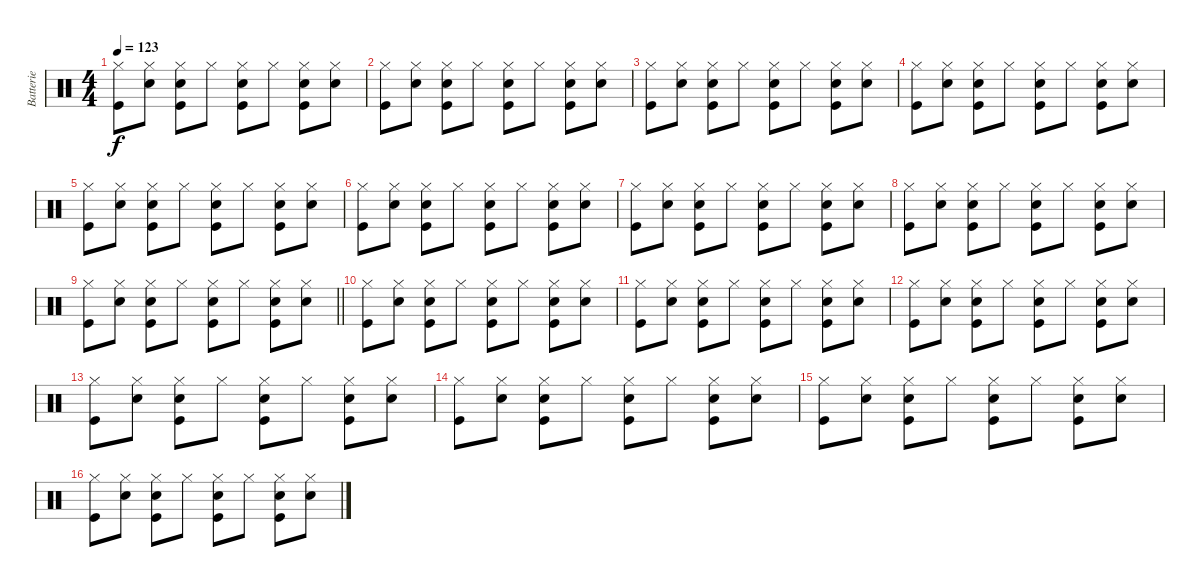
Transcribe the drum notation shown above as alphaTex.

\track ("Batterie" "Batterie") {instrument percussion}
\staff {score}
\articulation defaults
\ts (4 4)
\tempo 123
\clef neutral
\ks c
("Hi-Hat (closed)" "Kick (hit)").8{dy f} ("Snare (hit) 2" "Hi-Hat (closed)").8 ("Hi-Hat (closed)" "Snare (hit) 2" "Kick (hit)").8 "Hi-Hat (closed)".8 ("Snare (hit) 2" "Kick (hit)" "Hi-Hat (closed)").8 "Hi-Hat (closed)".8 ("Hi-Hat (closed)" "Kick (hit)" "Snare (hit) 2").8 ("Hi-Hat (closed)" "Snare (hit) 2").8 |
("Hi-Hat (closed)" "Kick (hit)").8 ("Snare (hit) 2" "Hi-Hat (closed)").8 ("Hi-Hat (closed)" "Snare (hit) 2" "Kick (hit)").8 "Hi-Hat (closed)".8 ("Snare (hit) 2" "Kick (hit)" "Hi-Hat (closed)").8 "Hi-Hat (closed)".8 ("Hi-Hat (closed)" "Kick (hit)" "Snare (hit) 2").8 ("Hi-Hat (closed)" "Snare (hit) 2").8 |
("Hi-Hat (closed)" "Kick (hit)").8 ("Snare (hit) 2" "Hi-Hat (closed)").8 ("Hi-Hat (closed)" "Snare (hit) 2" "Kick (hit)").8 "Hi-Hat (closed)".8 ("Snare (hit) 2" "Kick (hit)" "Hi-Hat (closed)").8 "Hi-Hat (closed)".8 ("Hi-Hat (closed)" "Kick (hit)" "Snare (hit) 2").8 ("Hi-Hat (closed)" "Snare (hit) 2").8 |
("Hi-Hat (closed)" "Kick (hit)").8 ("Snare (hit) 2" "Hi-Hat (closed)").8 ("Hi-Hat (closed)" "Snare (hit) 2" "Kick (hit)").8 "Hi-Hat (closed)".8 ("Snare (hit) 2" "Kick (hit)" "Hi-Hat (closed)").8 "Hi-Hat (closed)".8 ("Hi-Hat (closed)" "Kick (hit)" "Snare (hit) 2").8 ("Hi-Hat (closed)" "Snare (hit) 2").8 |
("Hi-Hat (closed)" "Kick (hit)").8 ("Snare (hit) 2" "Hi-Hat (closed)").8 ("Hi-Hat (closed)" "Snare (hit) 2" "Kick (hit)").8 "Hi-Hat (closed)".8 ("Snare (hit) 2" "Kick (hit)" "Hi-Hat (closed)").8 "Hi-Hat (closed)".8 ("Hi-Hat (closed)" "Kick (hit)" "Snare (hit) 2").8 ("Hi-Hat (closed)" "Snare (hit) 2").8 |
("Hi-Hat (closed)" "Kick (hit)").8 ("Snare (hit) 2" "Hi-Hat (closed)").8 ("Hi-Hat (closed)" "Snare (hit) 2" "Kick (hit)").8 "Hi-Hat (closed)".8 ("Snare (hit) 2" "Kick (hit)" "Hi-Hat (closed)").8 "Hi-Hat (closed)".8 ("Hi-Hat (closed)" "Kick (hit)" "Snare (hit) 2").8 ("Hi-Hat (closed)" "Snare (hit) 2").8 |
("Hi-Hat (closed)" "Kick (hit)").8 ("Snare (hit) 2" "Hi-Hat (closed)").8 ("Hi-Hat (closed)" "Snare (hit) 2" "Kick (hit)").8 "Hi-Hat (closed)".8 ("Snare (hit) 2" "Kick (hit)" "Hi-Hat (closed)").8 "Hi-Hat (closed)".8 ("Hi-Hat (closed)" "Kick (hit)" "Snare (hit) 2").8 ("Hi-Hat (closed)" "Snare (hit) 2").8 |
("Hi-Hat (closed)" "Kick (hit)").8 ("Snare (hit) 2" "Hi-Hat (closed)").8 ("Hi-Hat (closed)" "Snare (hit) 2" "Kick (hit)").8 "Hi-Hat (closed)".8 ("Snare (hit) 2" "Kick (hit)" "Hi-Hat (closed)").8 "Hi-Hat (closed)".8 ("Hi-Hat (closed)" "Kick (hit)" "Snare (hit) 2").8 ("Hi-Hat (closed)" "Snare (hit) 2").8 |
\barLineRight lightlight
("Hi-Hat (closed)" "Kick (hit)").8 ("Snare (hit) 2" "Hi-Hat (closed)").8 ("Hi-Hat (closed)" "Snare (hit) 2" "Kick (hit)").8 "Hi-Hat (closed)".8 ("Snare (hit) 2" "Kick (hit)" "Hi-Hat (closed)").8 "Hi-Hat (closed)".8 ("Hi-Hat (closed)" "Kick (hit)" "Snare (hit) 2").8 ("Hi-Hat (closed)" "Snare (hit) 2").8 |
("Hi-Hat (closed)" "Kick (hit)").8 ("Snare (hit) 2" "Hi-Hat (closed)").8 ("Hi-Hat (closed)" "Snare (hit) 2" "Kick (hit)").8 "Hi-Hat (closed)".8 ("Snare (hit) 2" "Kick (hit)" "Hi-Hat (closed)").8 "Hi-Hat (closed)".8 ("Hi-Hat (closed)" "Kick (hit)" "Snare (hit) 2").8 ("Hi-Hat (closed)" "Snare (hit) 2").8 |
("Hi-Hat (closed)" "Kick (hit)").8 ("Snare (hit) 2" "Hi-Hat (closed)").8 ("Hi-Hat (closed)" "Snare (hit) 2" "Kick (hit)").8 "Hi-Hat (closed)".8 ("Snare (hit) 2" "Kick (hit)" "Hi-Hat (closed)").8 "Hi-Hat (closed)".8 ("Hi-Hat (closed)" "Kick (hit)" "Snare (hit) 2").8 ("Hi-Hat (closed)" "Snare (hit) 2").8 |
("Hi-Hat (closed)" "Kick (hit)").8 ("Snare (hit) 2" "Hi-Hat (closed)").8 ("Hi-Hat (closed)" "Snare (hit) 2" "Kick (hit)").8 "Hi-Hat (closed)".8 ("Snare (hit) 2" "Kick (hit)" "Hi-Hat (closed)").8 "Hi-Hat (closed)".8 ("Hi-Hat (closed)" "Kick (hit)" "Snare (hit) 2").8 ("Hi-Hat (closed)" "Snare (hit) 2").8 |
("Hi-Hat (closed)" "Kick (hit)").8 ("Snare (hit) 2" "Hi-Hat (closed)").8 ("Hi-Hat (closed)" "Snare (hit) 2" "Kick (hit)").8 "Hi-Hat (closed)".8 ("Snare (hit) 2" "Kick (hit)" "Hi-Hat (closed)").8 "Hi-Hat (closed)".8 ("Hi-Hat (closed)" "Kick (hit)" "Snare (hit) 2").8 ("Hi-Hat (closed)" "Snare (hit) 2").8 |
("Hi-Hat (closed)" "Kick (hit)").8 ("Snare (hit) 2" "Hi-Hat (closed)").8 ("Hi-Hat (closed)" "Snare (hit) 2" "Kick (hit)").8 "Hi-Hat (closed)".8 ("Snare (hit) 2" "Kick (hit)" "Hi-Hat (closed)").8 "Hi-Hat (closed)".8 ("Hi-Hat (closed)" "Kick (hit)" "Snare (hit) 2").8 ("Hi-Hat (closed)" "Snare (hit) 2").8 |
("Hi-Hat (closed)" "Kick (hit)").8 ("Snare (hit) 2" "Hi-Hat (closed)").8 ("Hi-Hat (closed)" "Snare (hit) 2" "Kick (hit)").8 "Hi-Hat (closed)".8 ("Snare (hit) 2" "Kick (hit)" "Hi-Hat (closed)").8 "Hi-Hat (closed)".8 ("Hi-Hat (closed)" "Kick (hit)" "Snare (hit) 2").8 ("Hi-Hat (closed)" "Snare (hit) 2").8 |
("Hi-Hat (closed)" "Kick (hit)").8 ("Snare (hit) 2" "Hi-Hat (closed)").8 ("Hi-Hat (closed)" "Snare (hit) 2" "Kick (hit)").8 "Hi-Hat (closed)".8 ("Snare (hit) 2" "Kick (hit)" "Hi-Hat (closed)").8 "Hi-Hat (closed)".8 ("Hi-Hat (closed)" "Kick (hit)" "Snare (hit) 2").8 ("Hi-Hat (closed)" "Snare (hit) 2").8
